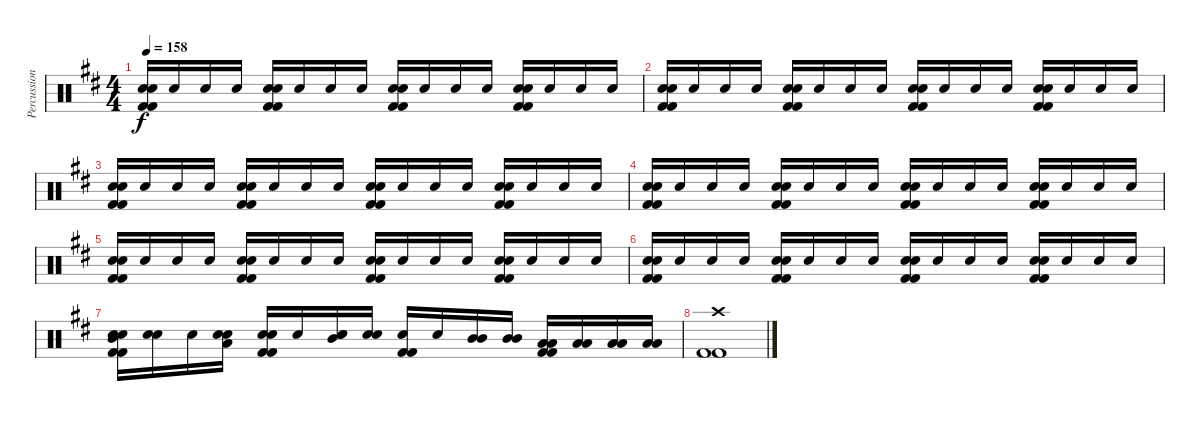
\track ("Percussion" "Percussion") {instrument percussion}
\staff {score}
\articulation defaults
\ts (4 4)
\tempo 158
\clef neutral
\ks d
("Electric Snare (hit)" "Electric Snare (hit)" "Kick (hit) 2" "Kick (hit) 2").16{dy f} "Electric Snare (hit)".16 "Electric Snare (hit)".16 "Electric Snare (hit)".16 ("Electric Snare (hit)" "Electric Snare (hit)" "Kick (hit) 2" "Kick (hit) 2").16 "Electric Snare (hit)".16 "Electric Snare (hit)".16 "Electric Snare (hit)".16 ("Electric Snare (hit)" "Electric Snare (hit)" "Kick (hit) 2" "Kick (hit) 2").16 "Electric Snare (hit)".16 "Electric Snare (hit)".16 "Electric Snare (hit)".16 ("Electric Snare (hit)" "Electric Snare (hit)" "Kick (hit) 2" "Kick (hit) 2").16 "Electric Snare (hit)".16 "Electric Snare (hit)".16 "Electric Snare (hit)".16 |
("Electric Snare (hit)" "Electric Snare (hit)" "Kick (hit) 2" "Kick (hit) 2").16 "Electric Snare (hit)".16 "Electric Snare (hit)".16 "Electric Snare (hit)".16 ("Electric Snare (hit)" "Electric Snare (hit)" "Kick (hit) 2" "Kick (hit) 2").16 "Electric Snare (hit)".16 "Electric Snare (hit)".16 "Electric Snare (hit)".16 ("Electric Snare (hit)" "Electric Snare (hit)" "Kick (hit) 2" "Kick (hit) 2").16 "Electric Snare (hit)".16 "Electric Snare (hit)".16 "Electric Snare (hit)".16 ("Electric Snare (hit)" "Electric Snare (hit)" "Kick (hit) 2" "Kick (hit) 2").16 "Electric Snare (hit)".16 "Electric Snare (hit)".16 "Electric Snare (hit)".16 |
("Electric Snare (hit)" "Electric Snare (hit)" "Kick (hit) 2" "Kick (hit) 2").16 "Electric Snare (hit)".16 "Electric Snare (hit)".16 "Electric Snare (hit)".16 ("Electric Snare (hit)" "Electric Snare (hit)" "Kick (hit) 2" "Kick (hit) 2").16 "Electric Snare (hit)".16 "Electric Snare (hit)".16 "Electric Snare (hit)".16 ("Electric Snare (hit)" "Electric Snare (hit)" "Kick (hit) 2" "Kick (hit) 2").16 "Electric Snare (hit)".16 "Electric Snare (hit)".16 "Electric Snare (hit)".16 ("Electric Snare (hit)" "Electric Snare (hit)" "Kick (hit) 2" "Kick (hit) 2").16 "Electric Snare (hit)".16 "Electric Snare (hit)".16 "Electric Snare (hit)".16 |
("Electric Snare (hit)" "Electric Snare (hit)" "Kick (hit) 2" "Kick (hit) 2").16 "Electric Snare (hit)".16 "Electric Snare (hit)".16 "Electric Snare (hit)".16 ("Electric Snare (hit)" "Electric Snare (hit)" "Kick (hit) 2" "Kick (hit) 2").16 "Electric Snare (hit)".16 "Electric Snare (hit)".16 "Electric Snare (hit)".16 ("Electric Snare (hit)" "Electric Snare (hit)" "Kick (hit) 2" "Kick (hit) 2").16 "Electric Snare (hit)".16 "Electric Snare (hit)".16 "Electric Snare (hit)".16 ("Electric Snare (hit)" "Electric Snare (hit)" "Kick (hit) 2" "Kick (hit) 2").16 "Electric Snare (hit)".16 "Electric Snare (hit)".16 "Electric Snare (hit)".16 |
("Electric Snare (hit)" "Electric Snare (hit)" "Kick (hit) 2" "Kick (hit) 2").16 "Electric Snare (hit)".16 "Electric Snare (hit)".16 "Electric Snare (hit)".16 ("Electric Snare (hit)" "Electric Snare (hit)" "Kick (hit) 2" "Kick (hit) 2").16 "Electric Snare (hit)".16 "Electric Snare (hit)".16 "Electric Snare (hit)".16 ("Electric Snare (hit)" "Electric Snare (hit)" "Kick (hit) 2" "Kick (hit) 2").16 "Electric Snare (hit)".16 "Electric Snare (hit)".16 "Electric Snare (hit)".16 ("Electric Snare (hit)" "Electric Snare (hit)" "Kick (hit) 2" "Kick (hit) 2").16 "Electric Snare (hit)".16 "Electric Snare (hit)".16 "Electric Snare (hit)".16 |
("Electric Snare (hit)" "Electric Snare (hit)" "Kick (hit) 2" "Kick (hit) 2").16 "Electric Snare (hit)".16 "Electric Snare (hit)".16 "Electric Snare (hit)".16 ("Electric Snare (hit)" "Electric Snare (hit)" "Kick (hit) 2" "Kick (hit) 2").16 "Electric Snare (hit)".16 "Electric Snare (hit)".16 "Electric Snare (hit)".16 ("Electric Snare (hit)" "Electric Snare (hit)" "Kick (hit) 2" "Kick (hit) 2").16 "Electric Snare (hit)".16 "Electric Snare (hit)".16 "Electric Snare (hit)".16 ("Electric Snare (hit)" "Electric Snare (hit)" "Kick (hit) 2" "Kick (hit) 2").16 "Electric Snare (hit)".16 "Electric Snare (hit)".16 "Electric Snare (hit)".16 |
("Mid Tom (hit)" "Electric Snare (hit)" "Electric Snare (hit)" "Kick (hit) 2" "Kick (hit) 2").16 ("Electric Snare (hit)" "Electric Snare (hit)").16 "Electric Snare (hit)".16 ("Low Tom (hit)" "Electric Snare (hit)" "Electric Snare (hit)").16 ("Electric Snare (hit)" "Electric Snare (hit)" "Kick (hit) 2" "Kick (hit) 2").16 "Electric Snare (hit)".16 ("Mid Tom (hit)" "Electric Snare (hit)" "Electric Snare (hit)").16 ("Electric Snare (hit)" "Electric Snare (hit)").16 ("Electric Snare (hit)" "Kick (hit) 2" "Kick (hit) 2").16 "Electric Snare (hit)".16 ("Mid Tom (hit)" "Mid Tom (hit)").16 ("Mid Tom (hit)" "Mid Tom (hit)").16 ("Low Tom (hit)" "Low Tom (hit)" "Kick (hit) 2" "Kick (hit) 2").16 ("Low Tom (hit)" "Low Tom (hit)").16 ("Low Floor Tom (hit)" "Low Floor Tom (hit)").16 ("Low Floor Tom (hit)" "Low Floor Tom (hit)").16 |
("Crash high (hit)" "Kick (hit) 2" "Kick (hit) 2").1
